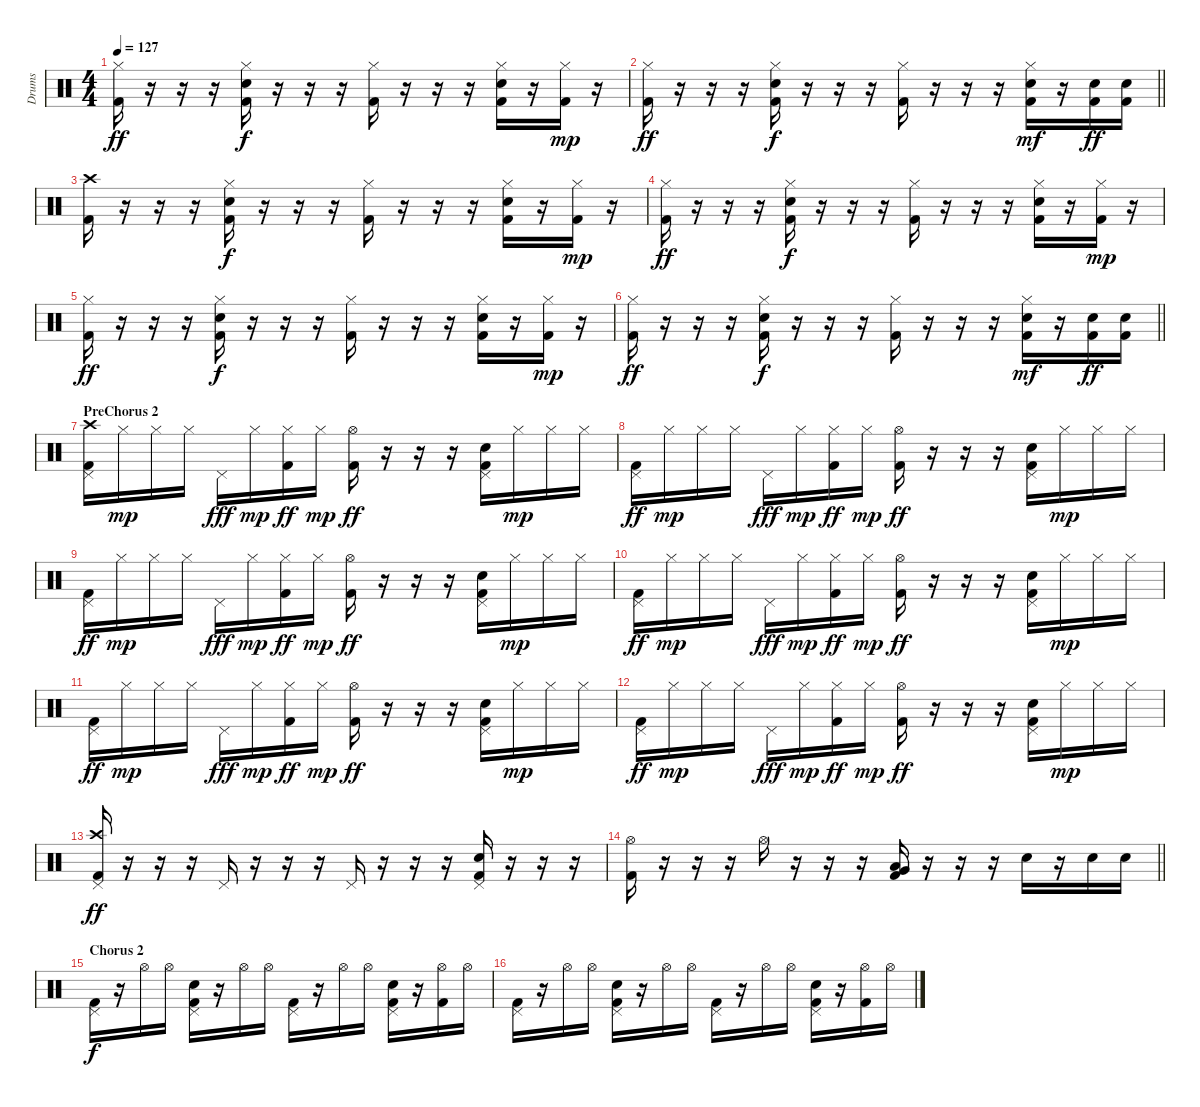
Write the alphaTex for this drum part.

\track ("Drums" "Drums") {instrument percussion}
\staff {score}
\articulation defaults
\ts (4 4)
\tempo 127
\clef neutral
\ks c
("Hi-Hat (closed)" "Kick (hit) 2").16{dy ff} r.16 r.16 r.16 ("Hi-Hat (closed)" "Snare (hit) 2" "Kick (hit) 2").16{dy f} r.16 r.16 r.16 ("Hi-Hat (closed)" "Kick (hit) 2").16 r.16 r.16 r.16 ("Hi-Hat (closed)" "Snare (hit) 2" "Kick (hit) 2").16 r.16 ("Hi-Hat (closed)" "Kick (hit) 2").16{dy mp} r.16 |
\barLineRight lightlight
("Hi-Hat (closed)" "Kick (hit) 2").16{dy ff} r.16 r.16 r.16 ("Hi-Hat (closed)" "Snare (hit) 2" "Kick (hit) 2").16{dy f} r.16 r.16 r.16 ("Hi-Hat (closed)" "Kick (hit) 2").16 r.16 r.16 r.16 ("Hi-Hat (closed)" "Snare (hit) 2" "Kick (hit) 2").16{dy mf} r.16 ("Snare (hit) 2" "Kick (hit) 2").16{dy ff} ("Snare (hit) 2" "Kick (hit) 2").16 |
("Crash high (hit)" "Kick (hit) 2").16 r.16 r.16 r.16 ("Hi-Hat (closed)" "Snare (hit) 2" "Kick (hit) 2").16{dy f} r.16 r.16 r.16 ("Hi-Hat (closed)" "Kick (hit) 2").16 r.16 r.16 r.16 ("Hi-Hat (closed)" "Snare (hit) 2" "Kick (hit) 2").16 r.16 ("Hi-Hat (closed)" "Kick (hit) 2").16{dy mp} r.16 |
("Hi-Hat (closed)" "Kick (hit) 2").16{dy ff} r.16 r.16 r.16 ("Hi-Hat (closed)" "Snare (hit) 2" "Kick (hit) 2").16{dy f} r.16 r.16 r.16 ("Hi-Hat (closed)" "Kick (hit) 2").16 r.16 r.16 r.16 ("Hi-Hat (closed)" "Snare (hit) 2" "Kick (hit) 2").16 r.16 ("Hi-Hat (closed)" "Kick (hit) 2").16{dy mp} r.16 |
("Hi-Hat (closed)" "Kick (hit) 2").16{dy ff} r.16 r.16 r.16 ("Hi-Hat (closed)" "Snare (hit) 2" "Kick (hit) 2").16{dy f} r.16 r.16 r.16 ("Hi-Hat (closed)" "Kick (hit) 2").16 r.16 r.16 r.16 ("Hi-Hat (closed)" "Snare (hit) 2" "Kick (hit) 2").16 r.16 ("Hi-Hat (closed)" "Kick (hit) 2").16{dy mp} r.16 |
\barLineRight lightlight
("Hi-Hat (closed)" "Kick (hit) 2").16{dy ff} r.16 r.16 r.16 ("Hi-Hat (closed)" "Snare (hit) 2" "Kick (hit) 2").16{dy f} r.16 r.16 r.16 ("Hi-Hat (closed)" "Kick (hit) 2").16 r.16 r.16 r.16 ("Hi-Hat (closed)" "Snare (hit) 2" "Kick (hit) 2").16{dy mf} r.16 ("Snare (hit) 2" "Kick (hit) 2").16{dy ff} ("Snare (hit) 2" "Kick (hit) 2").16 |
\section ("" "PreChorus 2")
("Crash high (hit)" "Pedal Hi-Hat (hit)" "Kick (hit) 2").16 "Hi-Hat (closed)".16{dy mp} "Hi-Hat (closed)".16 "Hi-Hat (closed)".16 "Pedal Hi-Hat (hit)".16{dy fff} "Hi-Hat (closed)".16{dy mp} ("Hi-Hat (closed)" "Kick (hit) 2").16{dy ff} "Hi-Hat (closed)".16{dy mp} ("Hi-Hat (open)" "Kick (hit) 2").16{dy ff} r.16 r.16 r.16 ("Snare (hit) 2" "Pedal Hi-Hat (hit)" "Kick (hit) 2").16 "Hi-Hat (closed)".16{dy mp} "Hi-Hat (closed)".16 "Hi-Hat (closed)".16 |
("Pedal Hi-Hat (hit)" "Kick (hit) 2").16{dy ff} "Hi-Hat (closed)".16{dy mp} "Hi-Hat (closed)".16 "Hi-Hat (closed)".16 "Pedal Hi-Hat (hit)".16{dy fff} "Hi-Hat (closed)".16{dy mp} ("Hi-Hat (closed)" "Kick (hit) 2").16{dy ff} "Hi-Hat (closed)".16{dy mp} ("Hi-Hat (open)" "Kick (hit) 2").16{dy ff} r.16 r.16 r.16 ("Snare (hit) 2" "Pedal Hi-Hat (hit)" "Kick (hit) 2").16 "Hi-Hat (closed)".16{dy mp} "Hi-Hat (closed)".16 "Hi-Hat (closed)".16 |
("Pedal Hi-Hat (hit)" "Kick (hit) 2").16{dy ff} "Hi-Hat (closed)".16{dy mp} "Hi-Hat (closed)".16 "Hi-Hat (closed)".16 "Pedal Hi-Hat (hit)".16{dy fff} "Hi-Hat (closed)".16{dy mp} ("Hi-Hat (closed)" "Kick (hit) 2").16{dy ff} "Hi-Hat (closed)".16{dy mp} ("Hi-Hat (open)" "Kick (hit) 2").16{dy ff} r.16 r.16 r.16 ("Snare (hit) 2" "Pedal Hi-Hat (hit)" "Kick (hit) 2").16 "Hi-Hat (closed)".16{dy mp} "Hi-Hat (closed)".16 "Hi-Hat (closed)".16 |
("Pedal Hi-Hat (hit)" "Kick (hit) 2").16{dy ff} "Hi-Hat (closed)".16{dy mp} "Hi-Hat (closed)".16 "Hi-Hat (closed)".16 "Pedal Hi-Hat (hit)".16{dy fff} "Hi-Hat (closed)".16{dy mp} ("Hi-Hat (closed)" "Kick (hit) 2").16{dy ff} "Hi-Hat (closed)".16{dy mp} ("Hi-Hat (open)" "Kick (hit) 2").16{dy ff} r.16 r.16 r.16 ("Snare (hit) 2" "Pedal Hi-Hat (hit)" "Kick (hit) 2").16 "Hi-Hat (closed)".16{dy mp} "Hi-Hat (closed)".16 "Hi-Hat (closed)".16 |
("Pedal Hi-Hat (hit)" "Kick (hit) 2").16{dy ff} "Hi-Hat (closed)".16{dy mp} "Hi-Hat (closed)".16 "Hi-Hat (closed)".16 "Pedal Hi-Hat (hit)".16{dy fff} "Hi-Hat (closed)".16{dy mp} ("Hi-Hat (closed)" "Kick (hit) 2").16{dy ff} "Hi-Hat (closed)".16{dy mp} ("Hi-Hat (open)" "Kick (hit) 2").16{dy ff} r.16 r.16 r.16 ("Snare (hit) 2" "Pedal Hi-Hat (hit)" "Kick (hit) 2").16 "Hi-Hat (closed)".16{dy mp} "Hi-Hat (closed)".16 "Hi-Hat (closed)".16 |
("Pedal Hi-Hat (hit)" "Kick (hit) 2").16{dy ff} "Hi-Hat (closed)".16{dy mp} "Hi-Hat (closed)".16 "Hi-Hat (closed)".16 "Pedal Hi-Hat (hit)".16{dy fff} "Hi-Hat (closed)".16{dy mp} ("Hi-Hat (closed)" "Kick (hit) 2").16{dy ff} "Hi-Hat (closed)".16{dy mp} ("Hi-Hat (open)" "Kick (hit) 2").16{dy ff} r.16 r.16 r.16 ("Snare (hit) 2" "Pedal Hi-Hat (hit)" "Kick (hit) 2").16 "Hi-Hat (closed)".16{dy mp} "Hi-Hat (closed)".16 "Hi-Hat (closed)".16 |
("Crash high (hit)" "Pedal Hi-Hat (hit)" "Kick (hit) 2").16{dy ff} r.16 r.16 r.16 "Pedal Hi-Hat (hit)".16 r.16 r.16 r.16 "Pedal Hi-Hat (hit)".16 r.16 r.16 r.16 ("Pedal Hi-Hat (hit)" "Snare (hit) 2" "Kick (hit) 2").16 r.16 r.16 r.16 |
\barLineRight lightlight
("Hi-Hat (open)" "Kick (hit) 2").16 r.16 r.16 r.16 "Hi-Hat (open)".16 r.16 r.16 r.16 ("Low Tom (hit)" "Very Low Tom (hit)" "Kick (hit) 2").16 r.16 r.16 r.16 "Snare (hit) 2".16 r.16 "Snare (hit) 2".16 "Snare (hit) 2".16 |
\section ("" "Chorus 2")
("Pedal Hi-Hat (hit)" "Kick (hit) 2").16{dy f} r.16 "Hi-Hat (open)".16 "Hi-Hat (open)".16 ("Pedal Hi-Hat (hit)" "Snare (hit) 2" "Kick (hit) 2").16 r.16 "Hi-Hat (open)".16 "Hi-Hat (open)".16 ("Pedal Hi-Hat (hit)" "Kick (hit) 2").16 r.16 "Hi-Hat (open)".16 "Hi-Hat (open)".16 ("Pedal Hi-Hat (hit)" "Snare (hit) 2" "Kick (hit) 2").16 r.16 ("Hi-Hat (open)" "Kick (hit) 2").16 "Hi-Hat (open)".16 |
("Pedal Hi-Hat (hit)" "Kick (hit) 2").16 r.16 "Hi-Hat (open)".16 "Hi-Hat (open)".16 ("Pedal Hi-Hat (hit)" "Snare (hit) 2" "Kick (hit) 2").16 r.16 "Hi-Hat (open)".16 "Hi-Hat (open)".16 ("Pedal Hi-Hat (hit)" "Kick (hit) 2").16 r.16 "Hi-Hat (open)".16 "Hi-Hat (open)".16 ("Pedal Hi-Hat (hit)" "Snare (hit) 2" "Kick (hit) 2").16 r.16 ("Hi-Hat (open)" "Kick (hit) 2").16 "Hi-Hat (open)".16
